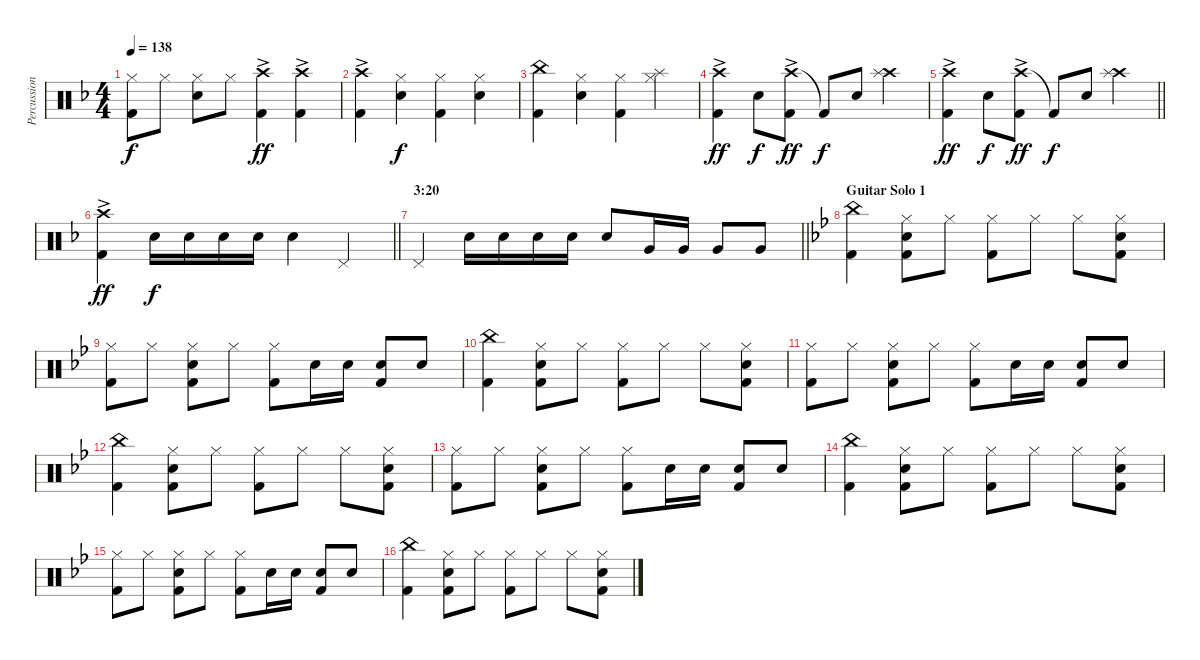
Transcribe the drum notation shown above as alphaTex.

\track ("Percussion" "Percussion") {instrument percussion}
\staff {score}
\articulation defaults
\ts (4 4)
\tempo 138
\clef neutral
\ks f
("Hi-Hat (closed)" "Kick (hit) 2").8{dy f} "Hi-Hat (closed)".8 ("Hi-Hat (closed)" "Snare (hit) 2").8 "Hi-Hat (closed)".8 ("Crash high (hit)"{ac} "Kick (hit) 2").4{dy ff} ("Crash high (hit)" "Kick (hit) 2"{ac}).4 |
("Crash high (hit)"{ac} "Kick (hit) 2").4 ("Hi-Hat (closed)" "Snare (hit) 2").4{dy f} ("Hi-Hat (closed)" "Kick (hit) 2").4 ("Hi-Hat (closed)" "Snare (hit) 2").4 |
("China (hit)" "Kick (hit) 2").4 ("Hi-Hat (closed)" "Snare (hit) 2").4 ("Hi-Hat (closed)" "Kick (hit) 2").4 ("Hi-Hat (closed)" "Splash (hit)").4 |
("Crash high (hit)"{ac} "Kick (hit) 2").4{dy ff} "Snare (hit) 2".8{dy f} ("Crash high (hit)"{ac} "Kick (hit) 2").8{dy ff} "Kick (hit) 2"{t}.8{dy f} "Snare (hit) 2".8 ("Crash high (hit)" "Splash (hit)").4 |
\barLineRight lightlight
("Crash high (hit)"{ac} "Kick (hit) 2").4{dy ff} "Snare (hit) 2".8{dy f} ("Crash high (hit)"{ac} "Kick (hit) 2").8{dy ff} "Kick (hit) 2"{t}.8{dy f} "Snare (hit) 2".8 ("Crash high (hit)" "Splash (hit)").4 |
\barLineRight lightlight
("Crash high (hit)"{ac} "Kick (hit) 2").4{dy ff} "Snare (hit) 2".16{dy f} "Snare (hit) 2".16{beam merge} "Snare (hit) 2".16 "Snare (hit) 2".16 "Snare (hit) 2".4 "Pedal Hi-Hat (hit)".4 |
\section ("" "3:20")
\barLineRight lightlight "Pedal Hi-Hat (hit)".4 "Snare (hit) 2".16 "Snare (hit) 2".16{beam merge} "Snare (hit) 2".16 "Snare (hit) 2".16 "Snare (hit) 2".8 "Very Low Tom (hit)".16 "Very Low Tom (hit)".16 "Very Low Tom (hit)".8 "Very Low Tom (hit)".8
|
\section ("" "Guitar Solo 1")
\ks bb
("China (hit)" "Kick (hit) 2").4 ("Hi-Hat (closed)" "Snare (hit) 2" "Kick (hit) 2").8 "Hi-Hat (closed)".8 ("Hi-Hat (closed)" "Kick (hit) 2").8 "Hi-Hat (closed)".8 "Hi-Hat (closed)".8 ("Hi-Hat (closed)" "Snare (hit) 2" "Kick (hit) 2").8 |
("Hi-Hat (closed)" "Kick (hit) 2").8 "Hi-Hat (closed)".8 ("Hi-Hat (closed)" "Snare (hit) 2" "Kick (hit) 2").8 "Hi-Hat (closed)".8 ("Hi-Hat (closed)" "Kick (hit) 2").8 "Snare (hit) 2".16 "Snare (hit) 2".16 ("Snare (hit) 2" "Kick (hit) 2").8 "Snare (hit) 2".8 |
("China (hit)" "Kick (hit) 2").4 ("Hi-Hat (closed)" "Snare (hit) 2" "Kick (hit) 2").8 "Hi-Hat (closed)".8 ("Hi-Hat (closed)" "Kick (hit) 2").8 "Hi-Hat (closed)".8 "Hi-Hat (closed)".8 ("Hi-Hat (closed)" "Snare (hit) 2" "Kick (hit) 2").8 |
("Hi-Hat (closed)" "Kick (hit) 2").8 "Hi-Hat (closed)".8 ("Hi-Hat (closed)" "Snare (hit) 2" "Kick (hit) 2").8 "Hi-Hat (closed)".8 ("Hi-Hat (closed)" "Kick (hit) 2").8 "Snare (hit) 2".16 "Snare (hit) 2".16 ("Snare (hit) 2" "Kick (hit) 2").8 "Snare (hit) 2".8 |
("China (hit)" "Kick (hit) 2").4 ("Hi-Hat (closed)" "Snare (hit) 2" "Kick (hit) 2").8 "Hi-Hat (closed)".8 ("Hi-Hat (closed)" "Kick (hit) 2").8 "Hi-Hat (closed)".8 "Hi-Hat (closed)".8 ("Hi-Hat (closed)" "Snare (hit) 2" "Kick (hit) 2").8 |
("Hi-Hat (closed)" "Kick (hit) 2").8 "Hi-Hat (closed)".8 ("Hi-Hat (closed)" "Snare (hit) 2" "Kick (hit) 2").8 "Hi-Hat (closed)".8 ("Hi-Hat (closed)" "Kick (hit) 2").8 "Snare (hit) 2".16 "Snare (hit) 2".16 ("Snare (hit) 2" "Kick (hit) 2").8 "Snare (hit) 2".8 |
("China (hit)" "Kick (hit) 2").4 ("Hi-Hat (closed)" "Snare (hit) 2" "Kick (hit) 2").8 "Hi-Hat (closed)".8 ("Hi-Hat (closed)" "Kick (hit) 2").8 "Hi-Hat (closed)".8 "Hi-Hat (closed)".8 ("Hi-Hat (closed)" "Snare (hit) 2" "Kick (hit) 2").8 |
("Hi-Hat (closed)" "Kick (hit) 2").8 "Hi-Hat (closed)".8 ("Hi-Hat (closed)" "Snare (hit) 2" "Kick (hit) 2").8 "Hi-Hat (closed)".8 ("Hi-Hat (closed)" "Kick (hit) 2").8 "Snare (hit) 2".16 "Snare (hit) 2".16 ("Snare (hit) 2" "Kick (hit) 2").8 "Snare (hit) 2".8 |
("China (hit)" "Kick (hit) 2").4 ("Hi-Hat (closed)" "Snare (hit) 2" "Kick (hit) 2").8 "Hi-Hat (closed)".8 ("Hi-Hat (closed)" "Kick (hit) 2").8 "Hi-Hat (closed)".8 "Hi-Hat (closed)".8 ("Hi-Hat (closed)" "Snare (hit) 2" "Kick (hit) 2").8
